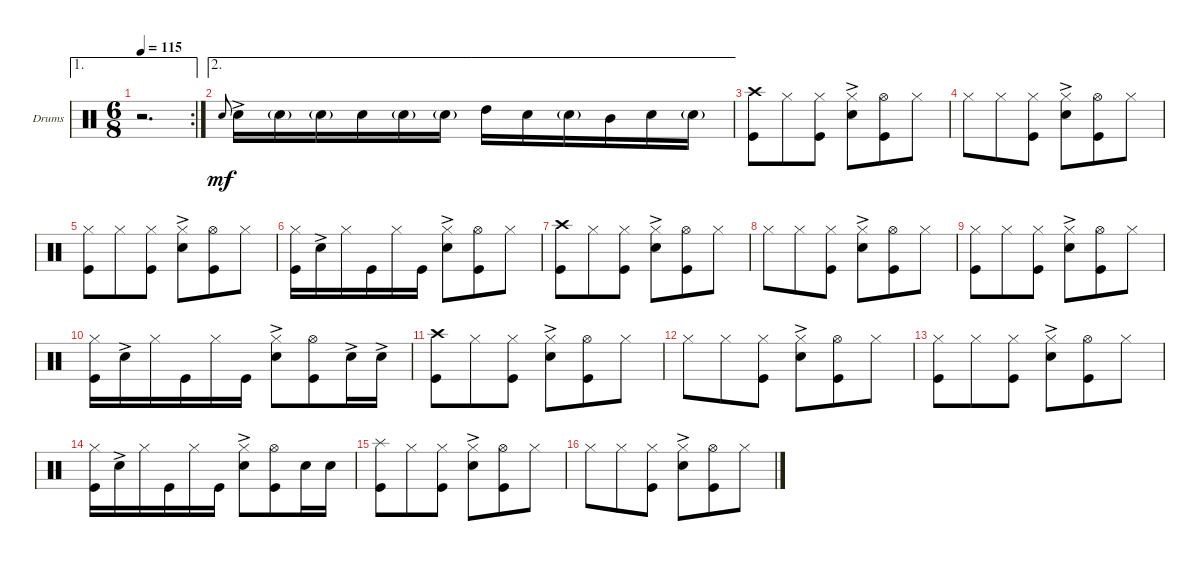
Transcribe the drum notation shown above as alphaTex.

\bracketExtendMode groupsimilarinstruments
\firstSystemTrackNameOrientation horizontal
\otherSystemsTrackNameOrientation horizontal
\track ("Drumkit" "Drums") {instrument percussion}
\staff {score}
\articulation defaults
\ae 1
\rc 2
\ts (6 8)
\tempo 115
\clef neutral
\ks c
r.2{d dy mf} |
\ae 2 "Snare (hit) 2".8{gr onbeat} "Snare (hit) 2"{ac}.16 "Snare (hit) 2"{g}.16 "Snare (hit) 2"{g}.16 "Snare (hit) 2".16 "Snare (hit) 2"{g}.16 "Snare (hit) 2"{g}.16 "High Tom (hit)".16 "Snare (hit) 2".16 "Snare (hit) 2"{g}.16 "Mid Tom (hit)".16 "Snare (hit) 2".16 "Snare (hit) 2"{g}.16
|
("Crash high (hit)" "Kick (hit)").8 "Hi-Hat (closed)".8 ("Kick (hit)" "Hi-Hat (closed)").8 ("Snare (hit) 2"{ac} "Hi-Hat (closed)").8 ("Kick (hit)" "Hi-Hat (open)").8 "Hi-Hat (closed)".8 |
"Hi-Hat (closed)".8 "Hi-Hat (closed)".8 ("Hi-Hat (closed)" "Kick (hit)").8 ("Hi-Hat (closed)" "Snare (hit) 2"{ac}).8 ("Kick (hit)" "Hi-Hat (open)").8 "Hi-Hat (closed)".8 |
("Kick (hit)" "Hi-Hat (closed)").8 "Hi-Hat (closed)".8 ("Kick (hit)" "Hi-Hat (closed)").8 ("Snare (hit) 2"{ac} "Hi-Hat (closed)").8 ("Kick (hit)" "Hi-Hat (open)").8 "Hi-Hat (closed)".8 |
("Kick (hit)" "Hi-Hat (closed)").16 "Snare (hit) 2"{ac}.16 "Hi-Hat (closed)".16 "Kick (hit)".16 "Hi-Hat (closed)".16 "Kick (hit)".16 ("Snare (hit) 2"{ac} "Hi-Hat (closed)").8 ("Kick (hit)" "Hi-Hat (open)").8 "Hi-Hat (closed)".8 |
("Crash high (hit)" "Kick (hit)").8 "Hi-Hat (closed)".8 ("Kick (hit)" "Hi-Hat (closed)").8 ("Snare (hit) 2"{ac} "Hi-Hat (closed)").8 ("Kick (hit)" "Hi-Hat (open)").8 "Hi-Hat (closed)".8 |
"Hi-Hat (closed)".8 "Hi-Hat (closed)".8 ("Hi-Hat (closed)" "Kick (hit)").8 ("Hi-Hat (closed)" "Snare (hit) 2"{ac}).8 ("Kick (hit)" "Hi-Hat (open)").8 "Hi-Hat (closed)".8 |
("Kick (hit)" "Hi-Hat (closed)").8 "Hi-Hat (closed)".8 ("Kick (hit)" "Hi-Hat (closed)").8 ("Snare (hit) 2"{ac} "Hi-Hat (closed)").8 ("Kick (hit)" "Hi-Hat (open)").8 "Hi-Hat (closed)".8 |
("Kick (hit)" "Hi-Hat (closed)").16 "Snare (hit) 2"{ac}.16 "Hi-Hat (closed)".16 "Kick (hit)".16 "Hi-Hat (closed)".16 "Kick (hit)".16 ("Snare (hit) 2"{ac} "Hi-Hat (closed)").8 ("Kick (hit)" "Hi-Hat (open)").8 "Snare (hit) 2"{ac}.16 "Snare (hit) 2"{ac}.16 |
("Crash high (hit)" "Kick (hit)").8 "Hi-Hat (closed)".8 ("Kick (hit)" "Hi-Hat (closed)").8 ("Snare (hit) 2"{ac} "Hi-Hat (closed)").8 ("Kick (hit)" "Hi-Hat (open)").8 "Hi-Hat (closed)".8 |
"Hi-Hat (closed)".8 "Hi-Hat (closed)".8 ("Hi-Hat (closed)" "Kick (hit)").8 ("Hi-Hat (closed)" "Snare (hit) 2"{ac}).8 ("Kick (hit)" "Hi-Hat (open)").8 "Hi-Hat (closed)".8 |
("Kick (hit)" "Hi-Hat (closed)").8 "Hi-Hat (closed)".8 ("Kick (hit)" "Hi-Hat (closed)").8 ("Snare (hit) 2"{ac} "Hi-Hat (closed)").8 ("Kick (hit)" "Hi-Hat (open)").8 "Hi-Hat (closed)".8 |
("Kick (hit)" "Hi-Hat (closed)").16 "Snare (hit) 2"{ac}.16 "Hi-Hat (closed)".16 "Kick (hit)".16 "Hi-Hat (closed)".16 "Kick (hit)".16 ("Snare (hit) 2"{ac} "Hi-Hat (closed)").8 ("Kick (hit)" "Hi-Hat (open)").8 "Snare (hit) 2".16 "Snare (hit) 2".16 |
("Kick (hit)" "Splash (hit)").8 "Hi-Hat (closed)".8 ("Kick (hit)" "Hi-Hat (closed)").8 ("Snare (hit) 2"{ac} "Hi-Hat (closed)").8 ("Kick (hit)" "Hi-Hat (open)").8 "Hi-Hat (closed)".8 |
"Hi-Hat (closed)".8 "Hi-Hat (closed)".8 ("Hi-Hat (closed)" "Kick (hit)").8 ("Hi-Hat (closed)" "Snare (hit) 2"{ac}).8 ("Kick (hit)" "Hi-Hat (open)").8 "Hi-Hat (closed)".8
